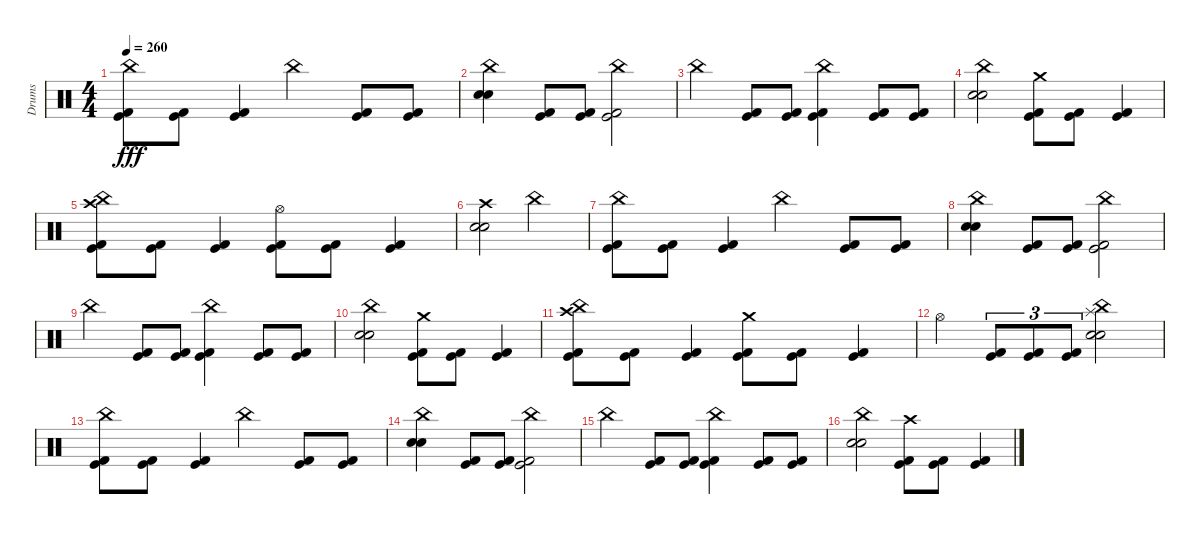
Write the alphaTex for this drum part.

\track ("Drums" "Drums") {instrument percussion}
\staff {score}
\articulation defaults
\ts (4 4)
\tempo 260
\clef neutral
\ks c
("Kick (hit)" "Kick (hit) 2" "China (hit)").8{dy fff} ("Kick (hit)" "Kick (hit) 2").8 ("Kick (hit)" "Kick (hit) 2").4 "China (hit)".4 ("Kick (hit)" "Kick (hit) 2").8 ("Kick (hit)" "Kick (hit) 2").8 |
("Electric Snare (hit)" "Electric Snare (hit)" "China (hit)").4 ("Kick (hit)" "Kick (hit) 2").8 ("Kick (hit)" "Kick (hit) 2").8 ("Kick (hit)" "Kick (hit) 2" "China (hit)").2 |
"China (hit)".4 ("Kick (hit)" "Kick (hit) 2").8 ("Kick (hit)" "Kick (hit) 2").8 ("Kick (hit)" "Kick (hit) 2" "China (hit)").4 ("Kick (hit)" "Kick (hit) 2").8 ("Kick (hit)" "Kick (hit) 2").8 |
("Electric Snare (hit)" "Electric Snare (hit)" "China (hit)").2 ("Kick (hit)" "Kick (hit) 2" "Crash medium (hit)").8 ("Kick (hit)" "Kick (hit) 2").8 ("Kick (hit)" "Kick (hit) 2").4 |
("Kick (hit)" "Kick (hit) 2" "China (hit)" "Crash high (hit)").8 ("Kick (hit)" "Kick (hit) 2").8 ("Kick (hit)" "Kick (hit) 2").4 ("Kick (hit)" "Kick (hit) 2" "Hi-Hat (open)").8 ("Kick (hit)" "Kick (hit) 2").8 ("Kick (hit)" "Kick (hit) 2").4 |
("Electric Snare (hit)" "Electric Snare (hit)" "Crash high (hit)").2 "China (hit)".2 |
("Kick (hit)" "Kick (hit) 2" "China (hit)").8 ("Kick (hit)" "Kick (hit) 2").8 ("Kick (hit)" "Kick (hit) 2").4 "China (hit)".4 ("Kick (hit)" "Kick (hit) 2").8 ("Kick (hit)" "Kick (hit) 2").8 |
("Electric Snare (hit)" "Electric Snare (hit)" "China (hit)").4 ("Kick (hit)" "Kick (hit) 2").8 ("Kick (hit)" "Kick (hit) 2").8 ("Kick (hit)" "Kick (hit) 2" "China (hit)").2 |
"China (hit)".4 ("Kick (hit)" "Kick (hit) 2").8 ("Kick (hit)" "Kick (hit) 2").8 ("Kick (hit)" "Kick (hit) 2" "China (hit)").4 ("Kick (hit)" "Kick (hit) 2").8 ("Kick (hit)" "Kick (hit) 2").8 |
("Electric Snare (hit)" "Electric Snare (hit)" "China (hit)").2 ("Kick (hit)" "Kick (hit) 2" "Crash medium (hit)").8 ("Kick (hit)" "Kick (hit) 2").8 ("Kick (hit)" "Kick (hit) 2").4 |
("Kick (hit)" "Kick (hit) 2" "China (hit)" "Crash high (hit)").8 ("Kick (hit)" "Kick (hit) 2").8 ("Kick (hit)" "Kick (hit) 2").4 ("Kick (hit)" "Kick (hit) 2" "Crash medium (hit)").8 ("Kick (hit)" "Kick (hit) 2").8 ("Kick (hit)" "Kick (hit) 2").4 |
"Hi-Hat (open)".4 ("Kick (hit)" "Kick (hit) 2").8{tu (3 2)} ("Kick (hit)" "Kick (hit) 2").8{tu (3 2)} ("Kick (hit)" "Kick (hit) 2").8{tu (3 2)} ("Electric Snare (hit)" "Electric Snare (hit)" "China (hit)" "Splash (hit)").2 |
("Kick (hit)" "Kick (hit) 2" "China (hit)").8 ("Kick (hit)" "Kick (hit) 2").8 ("Kick (hit)" "Kick (hit) 2").4 "China (hit)".4 ("Kick (hit)" "Kick (hit) 2").8 ("Kick (hit)" "Kick (hit) 2").8 |
("Electric Snare (hit)" "Electric Snare (hit)" "China (hit)").4 ("Kick (hit)" "Kick (hit) 2").8 ("Kick (hit)" "Kick (hit) 2").8 ("Kick (hit)" "Kick (hit) 2" "China (hit)").2 |
"China (hit)".4 ("Kick (hit)" "Kick (hit) 2").8 ("Kick (hit)" "Kick (hit) 2").8 ("Kick (hit)" "Kick (hit) 2" "China (hit)").4 ("Kick (hit)" "Kick (hit) 2").8 ("Kick (hit)" "Kick (hit) 2").8 |
("Electric Snare (hit)" "Electric Snare (hit)" "China (hit)").2 ("Kick (hit)" "Kick (hit) 2" "Crash high (hit)").8 ("Kick (hit)" "Kick (hit) 2").8 ("Kick (hit)" "Kick (hit) 2").4
